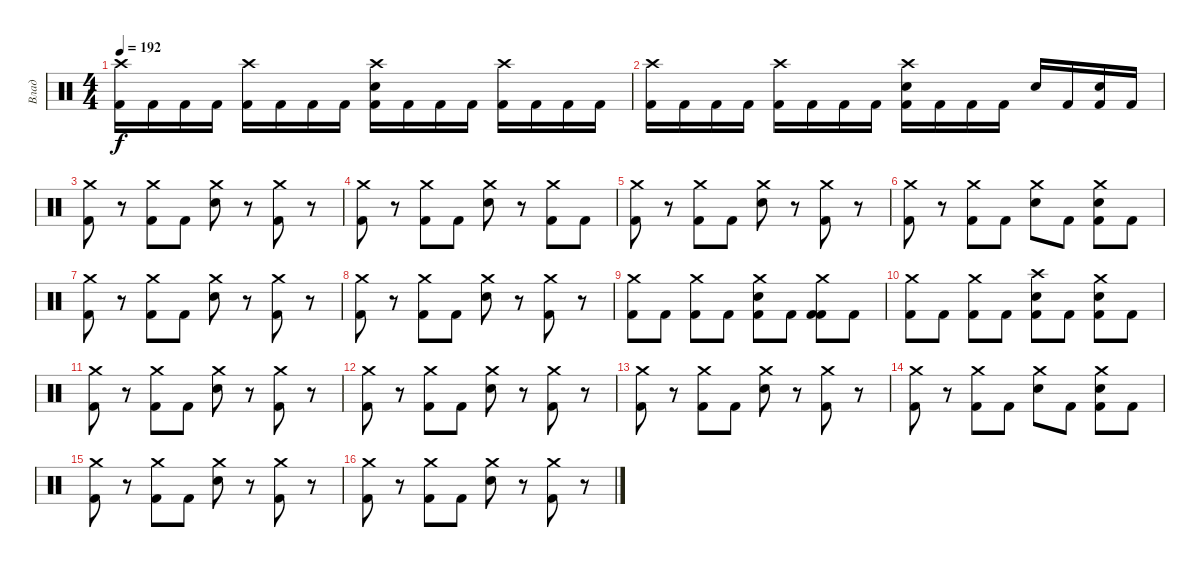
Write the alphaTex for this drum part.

\track ("Влад" "Влад") {instrument percussion}
\staff {score}
\articulation defaults
\ts (4 4)
\tempo 192
\clef neutral
\ks c
("Crash high (hit)" "Kick (hit) 2").16{dy f} "Kick (hit) 2".16 "Kick (hit) 2".16 "Kick (hit) 2".16 ("Crash high (hit)" "Kick (hit) 2").16 "Kick (hit) 2".16 "Kick (hit) 2".16 "Kick (hit) 2".16 ("Crash high (hit)" "Snare (hit) 2" "Kick (hit) 2").16 "Kick (hit) 2".16 "Kick (hit) 2".16 "Kick (hit) 2".16 ("Crash high (hit)" "Kick (hit) 2").16 "Kick (hit) 2".16 "Kick (hit) 2".16 "Kick (hit) 2".16 |
("Crash high (hit)" "Kick (hit) 2").16 "Kick (hit) 2".16 "Kick (hit) 2".16 "Kick (hit) 2".16 ("Crash high (hit)" "Kick (hit) 2").16 "Kick (hit) 2".16 "Kick (hit) 2".16 "Kick (hit) 2".16 ("Crash high (hit)" "Snare (hit) 2" "Kick (hit) 2").16 "Kick (hit) 2".16 "Kick (hit) 2".16 "Kick (hit) 2".16 "Snare (hit) 2".16 "Kick (hit) 2".16 ("Snare (hit) 2" "Kick (hit) 2").16 "Kick (hit) 2".16 |
("Crash medium (hit)" "Kick (hit) 2").8 r.8 ("Crash medium (hit)" "Kick (hit) 2").8 "Kick (hit) 2".8 ("Crash medium (hit)" "Snare (hit) 2").8 r.8 ("Crash medium (hit)" "Kick (hit) 2").8 r.8 |
("Crash medium (hit)" "Kick (hit) 2").8 r.8 ("Crash medium (hit)" "Kick (hit) 2").8 "Kick (hit) 2".8 ("Crash medium (hit)" "Snare (hit) 2").8 r.8 ("Crash medium (hit)" "Kick (hit) 2").8 "Kick (hit) 2".8 |
("Crash medium (hit)" "Kick (hit) 2").8 r.8 ("Crash medium (hit)" "Kick (hit) 2").8 "Kick (hit) 2".8 ("Crash medium (hit)" "Snare (hit) 2").8 r.8 ("Crash medium (hit)" "Kick (hit) 2").8 r.8 |
("Crash medium (hit)" "Kick (hit) 2").8 r.8 ("Crash medium (hit)" "Kick (hit) 2").8 "Kick (hit) 2".8 ("Crash medium (hit)" "Snare (hit) 2").8 "Kick (hit) 2".8 ("Crash medium (hit)" "Kick (hit) 2" "Snare (hit) 2").8 "Kick (hit) 2".8 |
("Crash medium (hit)" "Kick (hit) 2").8 r.8 ("Crash medium (hit)" "Kick (hit) 2").8 "Kick (hit) 2".8 ("Crash medium (hit)" "Snare (hit) 2").8 r.8 ("Crash medium (hit)" "Kick (hit) 2").8 r.8 |
("Crash medium (hit)" "Kick (hit) 2").8 r.8 ("Crash medium (hit)" "Kick (hit) 2").8 "Kick (hit) 2".8 ("Crash medium (hit)" "Snare (hit) 2").8 r.8 ("Crash medium (hit)" "Kick (hit) 2").8 r.8 |
("Crash medium (hit)" "Kick (hit) 2").8 "Kick (hit) 2".8 ("Crash medium (hit)" "Kick (hit) 2").8 "Kick (hit) 2".8 ("Crash medium (hit)" "Kick (hit) 2" "Snare (hit) 2").8 "Kick (hit) 2".8 ("Crash medium (hit)" "Kick (hit) 2" "Kick (hit) 2").8 "Kick (hit) 2".8 |
("Crash medium (hit)" "Kick (hit) 2").8 "Kick (hit) 2".8 ("Crash medium (hit)" "Kick (hit) 2").8 "Kick (hit) 2".8 ("Crash high (hit)" "Kick (hit) 2"{tr (36 16)} "Snare (hit) 2").8 "Kick (hit) 2"{tr (36 16)}.8 ("Crash medium (hit)" "Kick (hit) 2"{tr (36 16)} "Snare (hit) 2").8 "Kick (hit) 2"{tr (36 16)}.8 |
("Crash medium (hit)" "Kick (hit) 2").8 r.8 ("Crash medium (hit)" "Kick (hit) 2").8 "Kick (hit) 2".8 ("Crash medium (hit)" "Snare (hit) 2").8 r.8 ("Crash medium (hit)" "Kick (hit) 2").8 r.8 |
("Crash medium (hit)" "Kick (hit) 2").8 r.8 ("Crash medium (hit)" "Kick (hit) 2").8 "Kick (hit) 2".8 ("Crash medium (hit)" "Snare (hit) 2").8 r.8 ("Crash medium (hit)" "Kick (hit) 2").8 r.8 |
("Crash medium (hit)" "Kick (hit) 2").8 r.8 ("Crash medium (hit)" "Kick (hit) 2").8 "Kick (hit) 2".8 ("Crash medium (hit)" "Snare (hit) 2").8 r.8 ("Crash medium (hit)" "Kick (hit) 2").8 r.8 |
("Crash medium (hit)" "Kick (hit) 2").8 r.8 ("Crash medium (hit)" "Kick (hit) 2").8 "Kick (hit) 2".8 ("Crash medium (hit)" "Snare (hit) 2").8 "Kick (hit) 2".8 ("Crash medium (hit)" "Kick (hit) 2" "Snare (hit) 2").8 "Kick (hit) 2".8 |
("Crash medium (hit)" "Kick (hit) 2").8 r.8 ("Crash medium (hit)" "Kick (hit) 2").8 "Kick (hit) 2".8 ("Crash medium (hit)" "Snare (hit) 2").8 r.8 ("Crash medium (hit)" "Kick (hit) 2").8 r.8 |
("Crash medium (hit)" "Kick (hit) 2").8 r.8 ("Crash medium (hit)" "Kick (hit) 2").8 "Kick (hit) 2".8 ("Crash medium (hit)" "Snare (hit) 2").8 r.8 ("Crash medium (hit)" "Kick (hit) 2").8 r.8
